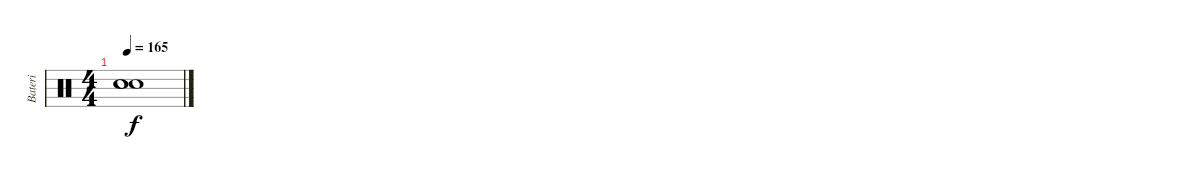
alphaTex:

\track ("Bateri" "Bateri") {instrument percussion}
\staff {score}
\articulation defaults
\ts (4 4)
\tempo 165
\clef neutral
\ks c
("Snare (hit)"{t} "Snare (hit)"{t} "Snare (hit)"{t}).1{dy f}
